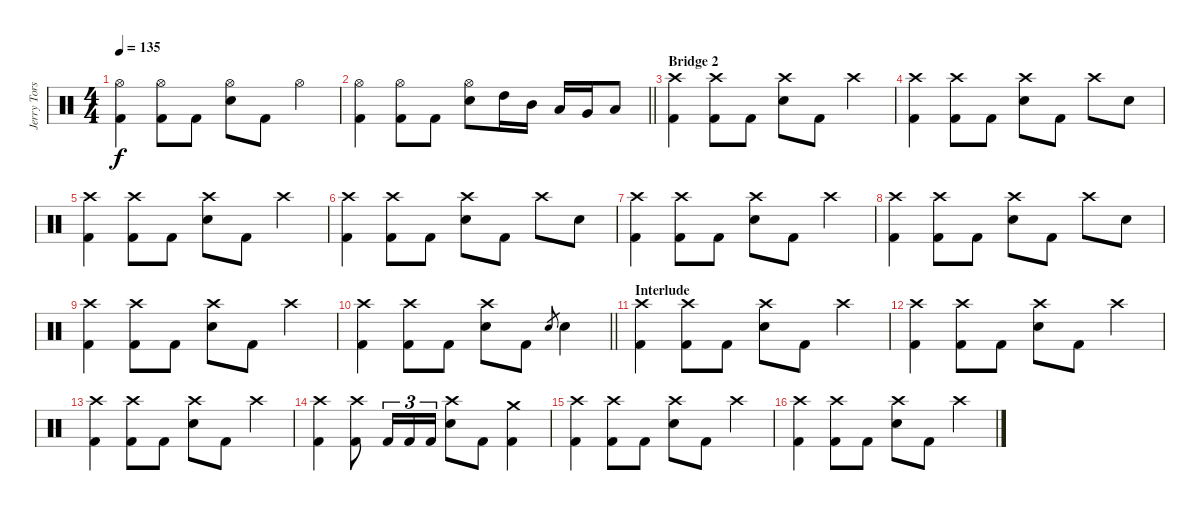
\track ("Jerry Torstensson" "Jerry Tors") {instrument percussion}
\staff {score}
\articulation defaults
\ts (4 4)
\tempo 135
\clef neutral
\ks c
("Hi-Hat (open)" "Kick (hit) 2").4{dy f} ("Hi-Hat (open)" "Kick (hit) 2").8 "Kick (hit) 2".8 ("Hi-Hat (open)" "Snare (hit) 2").8 "Kick (hit) 2".8 "Hi-Hat (open)".4 |
\barLineRight lightlight
("Hi-Hat (open)" "Kick (hit) 2").4 ("Hi-Hat (open)" "Kick (hit) 2").8 "Kick (hit) 2".8 ("Hi-Hat (open)" "Snare (hit) 2").8 "High Tom (hit)".16 "Mid Tom (hit)".16 "Low Tom (hit)".16 "Very Low Tom (hit)".16 "Low Floor Tom (hit)".8 |
\section ("" "Bridge 2")
("Crash high (hit)" "Kick (hit) 2").4 ("Crash high (hit)" "Kick (hit) 2").8 "Kick (hit) 2".8 ("Crash high (hit)" "Snare (hit) 2").8 "Kick (hit) 2".8 "Crash high (hit)".4 |
("Crash high (hit)" "Kick (hit) 2").4 ("Crash high (hit)" "Kick (hit) 2").8 "Kick (hit) 2".8 ("Crash high (hit)" "Snare (hit) 2").8 "Kick (hit) 2".8 "Crash high (hit)".8 "Snare (hit) 2".8 |
("Crash high (hit)" "Kick (hit) 2").4 ("Crash high (hit)" "Kick (hit) 2").8 "Kick (hit) 2".8 ("Crash high (hit)" "Snare (hit) 2").8 "Kick (hit) 2".8 "Crash high (hit)".4 |
("Crash high (hit)" "Kick (hit) 2").4 ("Crash high (hit)" "Kick (hit) 2").8 "Kick (hit) 2".8 ("Crash high (hit)" "Snare (hit) 2").8 "Kick (hit) 2".8 "Crash high (hit)".8 "Snare (hit) 2".8 |
("Crash high (hit)" "Kick (hit) 2").4 ("Crash high (hit)" "Kick (hit) 2").8 "Kick (hit) 2".8 ("Crash high (hit)" "Snare (hit) 2").8 "Kick (hit) 2".8 "Crash high (hit)".4 |
("Crash high (hit)" "Kick (hit) 2").4 ("Crash high (hit)" "Kick (hit) 2").8 "Kick (hit) 2".8 ("Crash high (hit)" "Snare (hit) 2").8 "Kick (hit) 2".8 "Crash high (hit)".8 "Snare (hit) 2".8 |
("Crash high (hit)" "Kick (hit) 2").4 ("Crash high (hit)" "Kick (hit) 2").8 "Kick (hit) 2".8 ("Crash high (hit)" "Snare (hit) 2").8 "Kick (hit) 2".8 "Crash high (hit)".4 |
\barLineRight lightlight
("Crash high (hit)" "Kick (hit) 2").4 ("Crash high (hit)" "Kick (hit) 2").8 "Kick (hit) 2".8 ("Crash high (hit)" "Snare (hit) 2").8 "Kick (hit) 2".8 "Snare (hit) 2".8{gr} "Snare (hit) 2".4 |
\section ("" "Interlude")
("Crash high (hit)" "Kick (hit) 2").4 ("Crash high (hit)" "Kick (hit) 2").8 "Kick (hit) 2".8 ("Crash high (hit)" "Snare (hit) 2").8 "Kick (hit) 2".8 "Crash high (hit)".4 |
("Crash high (hit)" "Kick (hit) 2").4 ("Crash high (hit)" "Kick (hit) 2").8 "Kick (hit) 2".8 ("Crash high (hit)" "Snare (hit) 2").8 "Kick (hit) 2".8 "Crash high (hit)".4 |
("Crash high (hit)" "Kick (hit) 2").4 ("Crash high (hit)" "Kick (hit) 2").8 "Kick (hit) 2".8 ("Crash high (hit)" "Snare (hit) 2").8 "Kick (hit) 2".8 "Crash high (hit)".4 |
("Crash high (hit)" "Kick (hit) 2").4 ("Crash high (hit)" "Kick (hit) 2").8 "Kick (hit) 2".16{tu (3 2)} "Kick (hit) 2".16{tu (3 2)} "Kick (hit) 2".16{tu (3 2)} ("Crash high (hit)" "Snare (hit) 2").8 "Kick (hit) 2".8 ("Crash medium (hit)" "Kick (hit) 2").4 |
("Crash high (hit)" "Kick (hit) 2").4 ("Crash high (hit)" "Kick (hit) 2").8 "Kick (hit) 2".8 ("Crash high (hit)" "Snare (hit) 2").8 "Kick (hit) 2".8 "Crash high (hit)".4 |
("Crash high (hit)" "Kick (hit) 2").4 ("Crash high (hit)" "Kick (hit) 2").8 "Kick (hit) 2".8 ("Crash high (hit)" "Snare (hit) 2").8 "Kick (hit) 2".8 "Crash high (hit)".4
